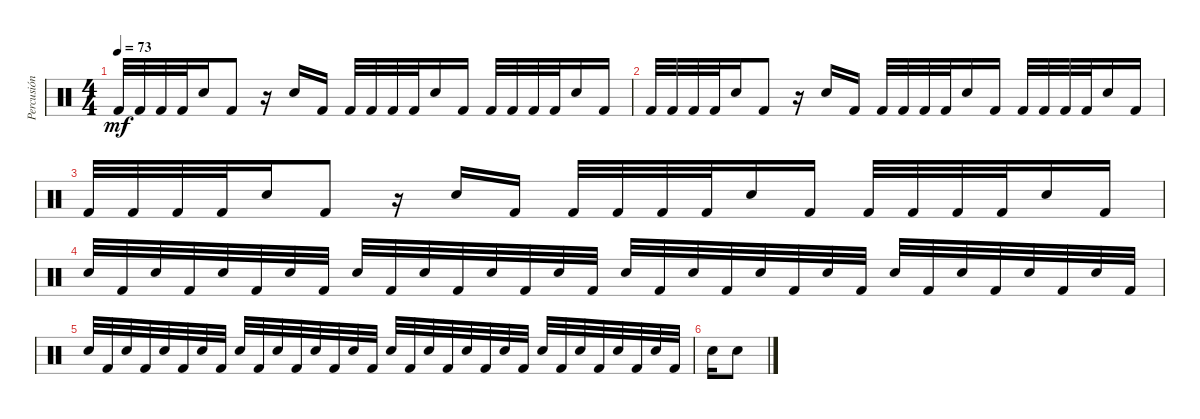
\track ("Percusión" "Percusión") {instrument percussion}
\staff {score}
\articulation defaults
\ts (4 4)
\tempo 73
\clef neutral
\ks c "Kick (hit) 2".32{dy mf} "Kick (hit) 2".32 "Kick (hit) 2".32 "Kick (hit) 2".32 "Snare (hit) 2".16 "Kick (hit) 2".8
r.16 "Snare (hit) 2".16 "Kick (hit) 2".16 "Kick (hit) 2".32 "Kick (hit) 2".32 "Kick (hit) 2".32 "Kick (hit) 2".32 "Snare (hit) 2".16 "Kick (hit) 2".16 "Kick (hit) 2".32 "Kick (hit) 2".32 "Kick (hit) 2".32 "Kick (hit) 2".32 "Snare (hit) 2".16 "Kick (hit) 2".16 |
"Kick (hit) 2".32 "Kick (hit) 2".32 "Kick (hit) 2".32 "Kick (hit) 2".32 "Snare (hit) 2".16 "Kick (hit) 2".8 r.16 "Snare (hit) 2".16 "Kick (hit) 2".16 "Kick (hit) 2".32 "Kick (hit) 2".32 "Kick (hit) 2".32 "Kick (hit) 2".32 "Snare (hit) 2".16 "Kick (hit) 2".16 "Kick (hit) 2".32 "Kick (hit) 2".32 "Kick (hit) 2".32 "Kick (hit) 2".32 "Snare (hit) 2".16 "Kick (hit) 2".16 |
"Kick (hit) 2".32 "Kick (hit) 2".32 "Kick (hit) 2".32 "Kick (hit) 2".32 "Snare (hit) 2".16 "Kick (hit) 2".8 r.16 "Snare (hit) 2".16 "Kick (hit) 2".16 "Kick (hit) 2".32 "Kick (hit) 2".32 "Kick (hit) 2".32 "Kick (hit) 2".32 "Snare (hit) 2".16 "Kick (hit) 2".16 "Kick (hit) 2".32 "Kick (hit) 2".32 "Kick (hit) 2".32 "Kick (hit) 2".32 "Snare (hit) 2".16 "Kick (hit) 2".16 |
"Snare (hit) 2".32 "Kick (hit) 2".32 "Snare (hit) 2".32 "Kick (hit) 2".32 "Snare (hit) 2".32 "Kick (hit) 2".32 "Snare (hit) 2".32 "Kick (hit) 2".32 "Snare (hit) 2".32 "Kick (hit) 2".32 "Snare (hit) 2".32 "Kick (hit) 2".32 "Snare (hit) 2".32 "Kick (hit) 2".32 "Snare (hit) 2".32 "Kick (hit) 2".32 "Snare (hit) 2".32 "Kick (hit) 2".32 "Snare (hit) 2".32 "Kick (hit) 2".32 "Snare (hit) 2".32 "Kick (hit) 2".32 "Snare (hit) 2".32 "Kick (hit) 2".32 "Snare (hit) 2".32 "Kick (hit) 2".32 "Snare (hit) 2".32 "Kick (hit) 2".32 "Snare (hit) 2".32 "Kick (hit) 2".32 "Snare (hit) 2".32 "Kick (hit) 2".32 |
"Snare (hit) 2".32 "Kick (hit) 2".32 "Snare (hit) 2".32 "Kick (hit) 2".32 "Snare (hit) 2".32 "Kick (hit) 2".32 "Snare (hit) 2".32 "Kick (hit) 2".32 "Snare (hit) 2".32 "Kick (hit) 2".32 "Snare (hit) 2".32 "Kick (hit) 2".32 "Snare (hit) 2".32 "Kick (hit) 2".32 "Snare (hit) 2".32 "Kick (hit) 2".32 "Snare (hit) 2".32 "Kick (hit) 2".32 "Snare (hit) 2".32 "Kick (hit) 2".32 "Snare (hit) 2".32 "Kick (hit) 2".32 "Snare (hit) 2".32 "Kick (hit) 2".32 "Snare (hit) 2".32 "Kick (hit) 2".32 "Snare (hit) 2".32 "Kick (hit) 2".32 "Snare (hit) 2".32 "Kick (hit) 2".32 "Snare (hit) 2".32 "Kick (hit) 2".32 |
"Snare (hit) 2".16 "Snare (hit) 2".8
